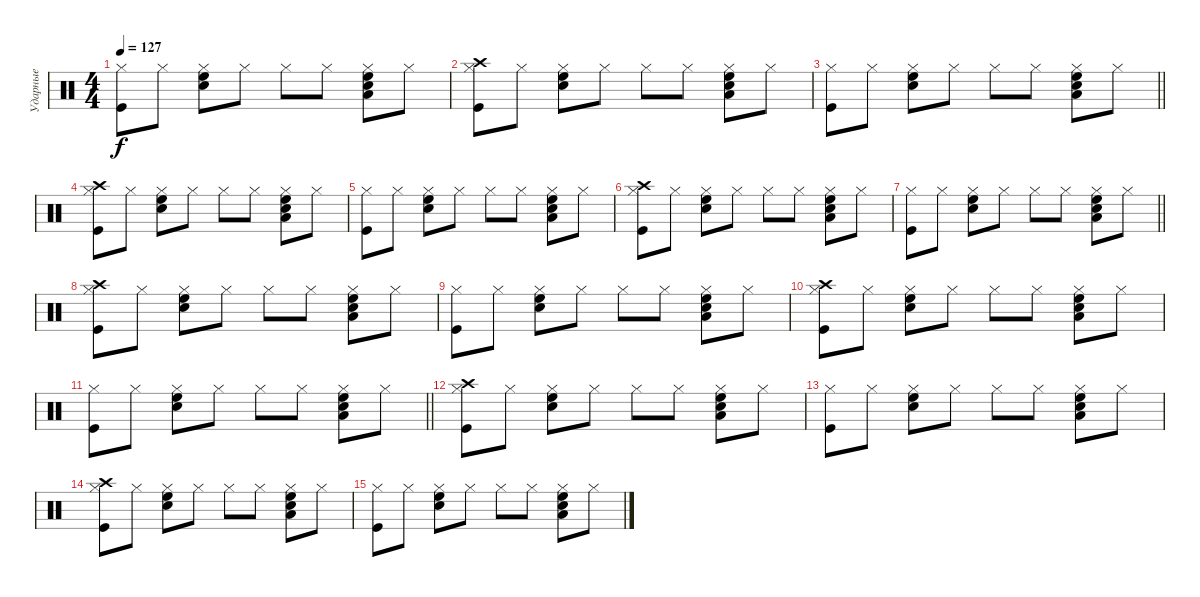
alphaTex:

\track ("Ударные" "Ударные") {instrument percussion}
\staff {score}
\articulation defaults
\ts (4 4)
\tempo 127
\clef neutral
\ks c
("Hi-Hat (closed)" "Kick (hit)").8{dy f} "Hi-Hat (closed)".8 ("Hi-Hat (closed)" "High Floor Tom (hit)" "Snare (hit) 2").8 "Hi-Hat (closed)".8 "Hi-Hat (closed)".8 "Hi-Hat (closed)".8 ("Hi-Hat (closed)" "High Floor Tom (hit)" "Snare (hit) 2" "Low Floor Tom (hit)").8 "Hi-Hat (closed)".8 |
("Hi-Hat (closed)" "Crash high (hit)" "Kick (hit)").8 "Hi-Hat (closed)".8 ("Hi-Hat (closed)" "High Floor Tom (hit)" "Snare (hit) 2").8 "Hi-Hat (closed)".8 "Hi-Hat (closed)".8 "Hi-Hat (closed)".8 ("Hi-Hat (closed)" "High Floor Tom (hit)" "Snare (hit) 2" "Low Floor Tom (hit)").8 "Hi-Hat (closed)".8 |
\barLineRight lightlight
("Hi-Hat (closed)" "Kick (hit)").8 "Hi-Hat (closed)".8 ("Hi-Hat (closed)" "High Floor Tom (hit)" "Snare (hit) 2").8 "Hi-Hat (closed)".8 "Hi-Hat (closed)".8 "Hi-Hat (closed)".8 ("Hi-Hat (closed)" "High Floor Tom (hit)" "Snare (hit) 2" "Low Floor Tom (hit)").8 "Hi-Hat (closed)".8 |
("Hi-Hat (closed)" "Crash high (hit)" "Kick (hit)").8 "Hi-Hat (closed)".8 ("Hi-Hat (closed)" "High Floor Tom (hit)" "Snare (hit) 2").8 "Hi-Hat (closed)".8 "Hi-Hat (closed)".8 "Hi-Hat (closed)".8 ("Hi-Hat (closed)" "High Floor Tom (hit)" "Snare (hit) 2" "Low Floor Tom (hit)").8 "Hi-Hat (closed)".8 |
("Hi-Hat (closed)" "Kick (hit)").8 "Hi-Hat (closed)".8 ("Hi-Hat (closed)" "High Floor Tom (hit)" "Snare (hit) 2").8 "Hi-Hat (closed)".8 "Hi-Hat (closed)".8 "Hi-Hat (closed)".8 ("Hi-Hat (closed)" "High Floor Tom (hit)" "Snare (hit) 2" "Low Floor Tom (hit)").8 "Hi-Hat (closed)".8 |
("Hi-Hat (closed)" "Crash high (hit)" "Kick (hit)").8 "Hi-Hat (closed)".8 ("Hi-Hat (closed)" "High Floor Tom (hit)" "Snare (hit) 2").8 "Hi-Hat (closed)".8 "Hi-Hat (closed)".8 "Hi-Hat (closed)".8 ("Hi-Hat (closed)" "High Floor Tom (hit)" "Snare (hit) 2" "Low Floor Tom (hit)").8 "Hi-Hat (closed)".8 |
\barLineRight lightlight
("Hi-Hat (closed)" "Kick (hit)").8 "Hi-Hat (closed)".8 ("Hi-Hat (closed)" "High Floor Tom (hit)" "Snare (hit) 2").8 "Hi-Hat (closed)".8 "Hi-Hat (closed)".8 "Hi-Hat (closed)".8 ("Hi-Hat (closed)" "High Floor Tom (hit)" "Snare (hit) 2" "Low Floor Tom (hit)").8 "Hi-Hat (closed)".8 |
("Hi-Hat (closed)" "Crash high (hit)" "Kick (hit)").8 "Hi-Hat (closed)".8 ("Hi-Hat (closed)" "High Floor Tom (hit)" "Snare (hit) 2").8 "Hi-Hat (closed)".8 "Hi-Hat (closed)".8 "Hi-Hat (closed)".8 ("Hi-Hat (closed)" "High Floor Tom (hit)" "Snare (hit) 2" "Low Floor Tom (hit)").8 "Hi-Hat (closed)".8 |
("Hi-Hat (closed)" "Kick (hit)").8 "Hi-Hat (closed)".8 ("Hi-Hat (closed)" "High Floor Tom (hit)" "Snare (hit) 2").8 "Hi-Hat (closed)".8 "Hi-Hat (closed)".8 "Hi-Hat (closed)".8 ("Hi-Hat (closed)" "High Floor Tom (hit)" "Snare (hit) 2" "Low Floor Tom (hit)").8 "Hi-Hat (closed)".8 |
("Hi-Hat (closed)" "Crash high (hit)" "Kick (hit)").8 "Hi-Hat (closed)".8 ("Hi-Hat (closed)" "High Floor Tom (hit)" "Snare (hit) 2").8 "Hi-Hat (closed)".8 "Hi-Hat (closed)".8 "Hi-Hat (closed)".8 ("Hi-Hat (closed)" "High Floor Tom (hit)" "Snare (hit) 2" "Low Floor Tom (hit)").8 "Hi-Hat (closed)".8 |
\barLineRight lightlight
("Hi-Hat (closed)" "Kick (hit)").8 "Hi-Hat (closed)".8 ("Hi-Hat (closed)" "High Floor Tom (hit)" "Snare (hit) 2").8 "Hi-Hat (closed)".8 "Hi-Hat (closed)".8 "Hi-Hat (closed)".8 ("Hi-Hat (closed)" "High Floor Tom (hit)" "Snare (hit) 2" "Low Floor Tom (hit)").8 "Hi-Hat (closed)".8 |
("Hi-Hat (closed)" "Crash high (hit)" "Kick (hit)").8 "Hi-Hat (closed)".8 ("Hi-Hat (closed)" "High Floor Tom (hit)" "Snare (hit) 2").8 "Hi-Hat (closed)".8 "Hi-Hat (closed)".8 "Hi-Hat (closed)".8 ("Hi-Hat (closed)" "High Floor Tom (hit)" "Snare (hit) 2" "Low Floor Tom (hit)").8 "Hi-Hat (closed)".8 |
("Hi-Hat (closed)" "Kick (hit)").8 "Hi-Hat (closed)".8 ("Hi-Hat (closed)" "High Floor Tom (hit)" "Snare (hit) 2").8 "Hi-Hat (closed)".8 "Hi-Hat (closed)".8 "Hi-Hat (closed)".8 ("Hi-Hat (closed)" "High Floor Tom (hit)" "Snare (hit) 2" "Low Floor Tom (hit)").8 "Hi-Hat (closed)".8 |
("Hi-Hat (closed)" "Crash high (hit)" "Kick (hit)").8 "Hi-Hat (closed)".8 ("Hi-Hat (closed)" "High Floor Tom (hit)" "Snare (hit) 2").8 "Hi-Hat (closed)".8 "Hi-Hat (closed)".8 "Hi-Hat (closed)".8 ("Hi-Hat (closed)" "High Floor Tom (hit)" "Snare (hit) 2" "Low Floor Tom (hit)").8 "Hi-Hat (closed)".8 |
("Hi-Hat (closed)" "Kick (hit)").8 "Hi-Hat (closed)".8 ("Hi-Hat (closed)" "High Floor Tom (hit)" "Snare (hit) 2").8 "Hi-Hat (closed)".8 "Hi-Hat (closed)".8 "Hi-Hat (closed)".8 ("Hi-Hat (closed)" "High Floor Tom (hit)" "Snare (hit) 2" "Low Floor Tom (hit)").8 "Hi-Hat (closed)".8
